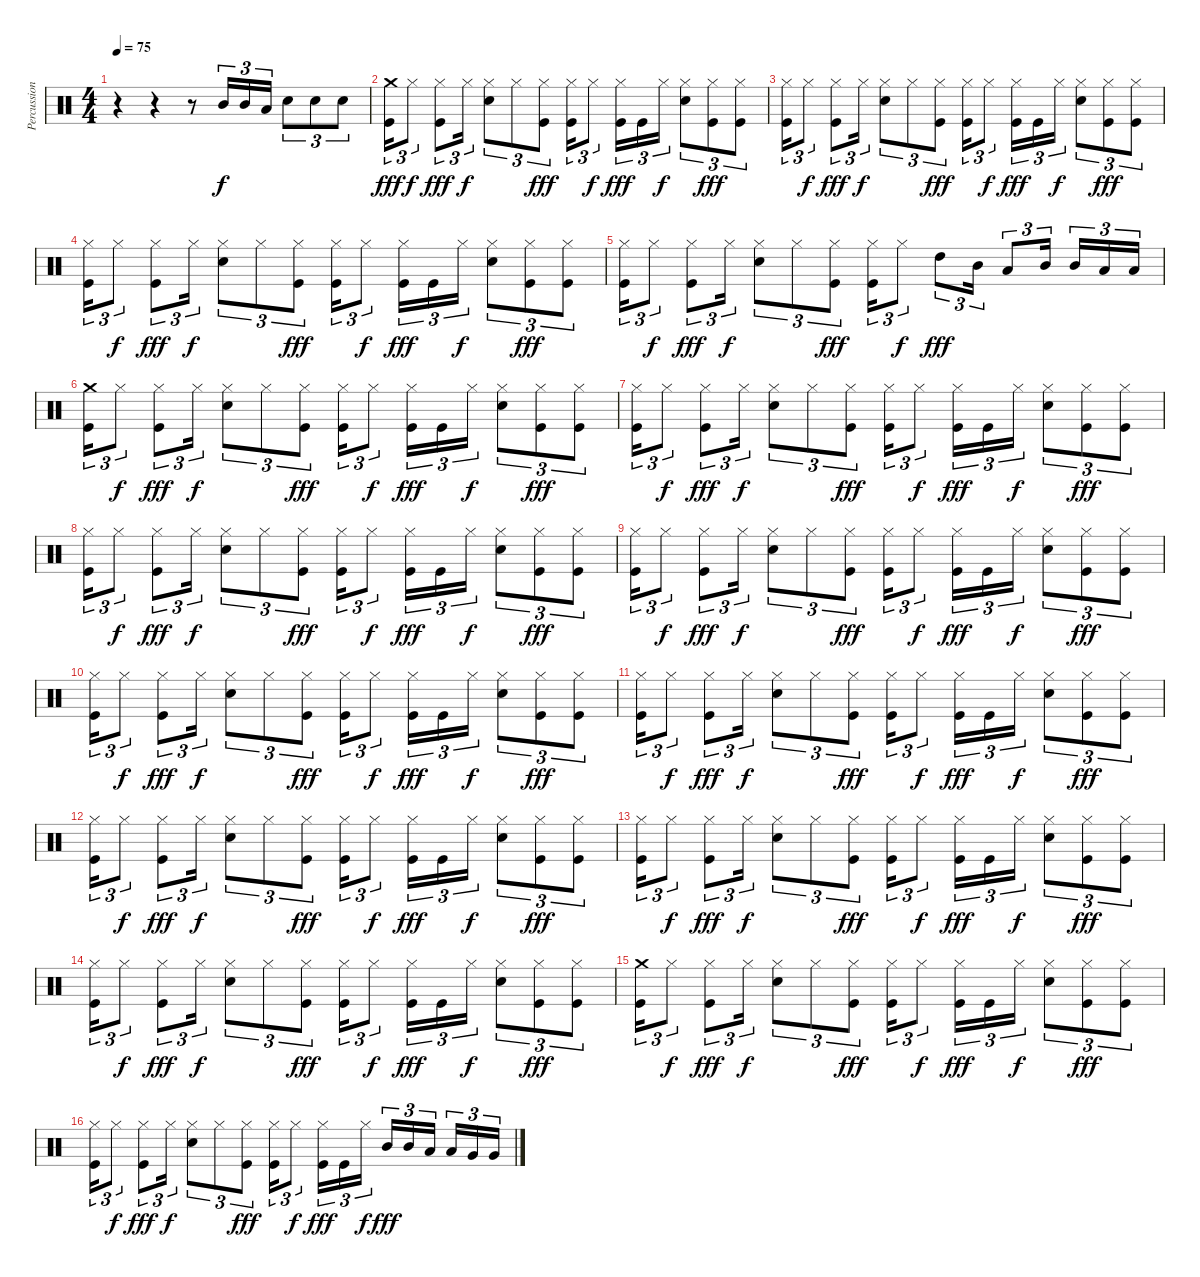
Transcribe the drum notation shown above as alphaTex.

\track ("Percussion" "Percussion") {instrument percussion}
\staff {score}
\articulation defaults
\ts (4 4)
\tempo 75
\clef neutral
\ks c
r.4{dy f} r.4 r.8 "Mid Tom (hit)".16{tu (3 2)} "Mid Tom (hit)".16{tu (3 2)} "Low Tom (hit)".16{tu (3 2)} "Snare (hit) 2".8{tu (3 2)} "Snare (hit) 2".8{tu (3 2)} "Snare (hit) 2".8{tu (3 2)} |
("Crash medium (hit)" "Kick (hit)").16{tu (3 2) dy fff} "Hi-Hat (closed)".8{tu (3 2) dy f} ("Hi-Hat (closed)" "Kick (hit)").8{tu (3 2) dy fff} "Hi-Hat (closed)".16{tu (3 2) dy f} ("Hi-Hat (closed)" "Snare (hit) 2").8{tu (3 2)} "Hi-Hat (closed)".8{tu (3 2)} ("Hi-Hat (closed)" "Kick (hit)").8{tu (3 2) dy fff} ("Hi-Hat (closed)" "Kick (hit)").16{tu (3 2)} "Hi-Hat (closed)".8{tu (3 2) dy f} ("Hi-Hat (closed)" "Kick (hit)").16{tu (3 2) dy fff} "Kick (hit)".16{tu (3 2)} "Hi-Hat (closed)".16{tu (3 2) dy f} ("Hi-Hat (closed)" "Snare (hit) 2").8{tu (3 2)} ("Hi-Hat (closed)" "Kick (hit)").8{tu (3 2) dy fff} ("Hi-Hat (closed)" "Kick (hit)").8{tu (3 2)} |
("Hi-Hat (closed)" "Kick (hit)").16{tu (3 2)} "Hi-Hat (closed)".8{tu (3 2) dy f} ("Hi-Hat (closed)" "Kick (hit)").8{tu (3 2) dy fff} "Hi-Hat (closed)".16{tu (3 2) dy f} ("Hi-Hat (closed)" "Snare (hit) 2").8{tu (3 2)} "Hi-Hat (closed)".8{tu (3 2)} ("Hi-Hat (closed)" "Kick (hit)").8{tu (3 2) dy fff} ("Hi-Hat (closed)" "Kick (hit)").16{tu (3 2)} "Hi-Hat (closed)".8{tu (3 2) dy f} ("Hi-Hat (closed)" "Kick (hit)").16{tu (3 2) dy fff} "Kick (hit)".16{tu (3 2)} "Hi-Hat (closed)".16{tu (3 2) dy f} ("Hi-Hat (closed)" "Snare (hit) 2").8{tu (3 2)} ("Hi-Hat (closed)" "Kick (hit)").8{tu (3 2) dy fff} ("Hi-Hat (closed)" "Kick (hit)").8{tu (3 2)} |
("Hi-Hat (closed)" "Kick (hit)").16{tu (3 2)} "Hi-Hat (closed)".8{tu (3 2) dy f} ("Hi-Hat (closed)" "Kick (hit)").8{tu (3 2) dy fff} "Hi-Hat (closed)".16{tu (3 2) dy f} ("Hi-Hat (closed)" "Snare (hit) 2").8{tu (3 2)} "Hi-Hat (closed)".8{tu (3 2)} ("Hi-Hat (closed)" "Kick (hit)").8{tu (3 2) dy fff} ("Hi-Hat (closed)" "Kick (hit)").16{tu (3 2)} "Hi-Hat (closed)".8{tu (3 2) dy f} ("Hi-Hat (closed)" "Kick (hit)").16{tu (3 2) dy fff} "Kick (hit)".16{tu (3 2)} "Hi-Hat (closed)".16{tu (3 2) dy f} ("Hi-Hat (closed)" "Snare (hit) 2").8{tu (3 2)} ("Hi-Hat (closed)" "Kick (hit)").8{tu (3 2) dy fff} ("Hi-Hat (closed)" "Kick (hit)").8{tu (3 2)} |
("Hi-Hat (closed)" "Kick (hit)").16{tu (3 2)} "Hi-Hat (closed)".8{tu (3 2) dy f} ("Hi-Hat (closed)" "Kick (hit)").8{tu (3 2) dy fff} "Hi-Hat (closed)".16{tu (3 2) dy f} ("Hi-Hat (closed)" "Snare (hit) 2").8{tu (3 2)} "Hi-Hat (closed)".8{tu (3 2)} ("Hi-Hat (closed)" "Kick (hit)").8{tu (3 2) dy fff} ("Hi-Hat (closed)" "Kick (hit)").16{tu (3 2)} "Hi-Hat (closed)".8{tu (3 2) dy f} "High Tom (hit)".8{tu (3 2) dy fff} "Mid Tom (hit)".16{tu (3 2)} "Low Tom (hit)".8{tu (3 2)} "Mid Tom (hit)".16{tu (3 2)} "Mid Tom (hit)".16{tu (3 2)} "Low Tom (hit)".16{tu (3 2)} "Low Tom (hit)".16{tu (3 2)} |
("Crash medium (hit)" "Kick (hit)").16{tu (3 2)} "Hi-Hat (closed)".8{tu (3 2) dy f} ("Hi-Hat (closed)" "Kick (hit)").8{tu (3 2) dy fff} "Hi-Hat (closed)".16{tu (3 2) dy f} ("Hi-Hat (closed)" "Snare (hit) 2").8{tu (3 2)} "Hi-Hat (closed)".8{tu (3 2)} ("Hi-Hat (closed)" "Kick (hit)").8{tu (3 2) dy fff} ("Hi-Hat (closed)" "Kick (hit)").16{tu (3 2)} "Hi-Hat (closed)".8{tu (3 2) dy f} ("Hi-Hat (closed)" "Kick (hit)").16{tu (3 2) dy fff} "Kick (hit)".16{tu (3 2)} "Hi-Hat (closed)".16{tu (3 2) dy f} ("Hi-Hat (closed)" "Snare (hit) 2").8{tu (3 2)} ("Hi-Hat (closed)" "Kick (hit)").8{tu (3 2) dy fff} ("Hi-Hat (closed)" "Kick (hit)").8{tu (3 2)} |
("Hi-Hat (closed)" "Kick (hit)").16{tu (3 2)} "Hi-Hat (closed)".8{tu (3 2) dy f} ("Hi-Hat (closed)" "Kick (hit)").8{tu (3 2) dy fff} "Hi-Hat (closed)".16{tu (3 2) dy f} ("Hi-Hat (closed)" "Snare (hit) 2").8{tu (3 2)} "Hi-Hat (closed)".8{tu (3 2)} ("Hi-Hat (closed)" "Kick (hit)").8{tu (3 2) dy fff} ("Hi-Hat (closed)" "Kick (hit)").16{tu (3 2)} "Hi-Hat (closed)".8{tu (3 2) dy f} ("Hi-Hat (closed)" "Kick (hit)").16{tu (3 2) dy fff} "Kick (hit)".16{tu (3 2)} "Hi-Hat (closed)".16{tu (3 2) dy f} ("Hi-Hat (closed)" "Snare (hit) 2").8{tu (3 2)} ("Hi-Hat (closed)" "Kick (hit)").8{tu (3 2) dy fff} ("Hi-Hat (closed)" "Kick (hit)").8{tu (3 2)} |
("Hi-Hat (closed)" "Kick (hit)").16{tu (3 2)} "Hi-Hat (closed)".8{tu (3 2) dy f} ("Hi-Hat (closed)" "Kick (hit)").8{tu (3 2) dy fff} "Hi-Hat (closed)".16{tu (3 2) dy f} ("Hi-Hat (closed)" "Snare (hit) 2").8{tu (3 2)} "Hi-Hat (closed)".8{tu (3 2)} ("Hi-Hat (closed)" "Kick (hit)").8{tu (3 2) dy fff} ("Hi-Hat (closed)" "Kick (hit)").16{tu (3 2)} "Hi-Hat (closed)".8{tu (3 2) dy f} ("Hi-Hat (closed)" "Kick (hit)").16{tu (3 2) dy fff} "Kick (hit)".16{tu (3 2)} "Hi-Hat (closed)".16{tu (3 2) dy f} ("Hi-Hat (closed)" "Snare (hit) 2").8{tu (3 2)} ("Hi-Hat (closed)" "Kick (hit)").8{tu (3 2) dy fff} ("Hi-Hat (closed)" "Kick (hit)").8{tu (3 2)} |
("Hi-Hat (closed)" "Kick (hit)").16{tu (3 2)} "Hi-Hat (closed)".8{tu (3 2) dy f} ("Hi-Hat (closed)" "Kick (hit)").8{tu (3 2) dy fff} "Hi-Hat (closed)".16{tu (3 2) dy f} ("Hi-Hat (closed)" "Snare (hit) 2").8{tu (3 2)} "Hi-Hat (closed)".8{tu (3 2)} ("Hi-Hat (closed)" "Kick (hit)").8{tu (3 2) dy fff} ("Hi-Hat (closed)" "Kick (hit)").16{tu (3 2)} "Hi-Hat (closed)".8{tu (3 2) dy f} ("Hi-Hat (closed)" "Kick (hit)").16{tu (3 2) dy fff} "Kick (hit)".16{tu (3 2)} "Hi-Hat (closed)".16{tu (3 2) dy f} ("Hi-Hat (closed)" "Snare (hit) 2").8{tu (3 2)} ("Hi-Hat (closed)" "Kick (hit)").8{tu (3 2) dy fff} ("Hi-Hat (closed)" "Kick (hit)").8{tu (3 2)} |
("Hi-Hat (closed)" "Kick (hit)").16{tu (3 2)} "Hi-Hat (closed)".8{tu (3 2) dy f} ("Hi-Hat (closed)" "Kick (hit)").8{tu (3 2) dy fff} "Hi-Hat (closed)".16{tu (3 2) dy f} ("Hi-Hat (closed)" "Snare (hit) 2").8{tu (3 2)} "Hi-Hat (closed)".8{tu (3 2)} ("Hi-Hat (closed)" "Kick (hit)").8{tu (3 2) dy fff} ("Hi-Hat (closed)" "Kick (hit)").16{tu (3 2)} "Hi-Hat (closed)".8{tu (3 2) dy f} ("Hi-Hat (closed)" "Kick (hit)").16{tu (3 2) dy fff} "Kick (hit)".16{tu (3 2)} "Hi-Hat (closed)".16{tu (3 2) dy f} ("Hi-Hat (closed)" "Snare (hit) 2").8{tu (3 2)} ("Hi-Hat (closed)" "Kick (hit)").8{tu (3 2) dy fff} ("Hi-Hat (closed)" "Kick (hit)").8{tu (3 2)} |
("Hi-Hat (closed)" "Kick (hit)").16{tu (3 2)} "Hi-Hat (closed)".8{tu (3 2) dy f} ("Hi-Hat (closed)" "Kick (hit)").8{tu (3 2) dy fff} "Hi-Hat (closed)".16{tu (3 2) dy f} ("Hi-Hat (closed)" "Snare (hit) 2").8{tu (3 2)} "Hi-Hat (closed)".8{tu (3 2)} ("Hi-Hat (closed)" "Kick (hit)").8{tu (3 2) dy fff} ("Hi-Hat (closed)" "Kick (hit)").16{tu (3 2)} "Hi-Hat (closed)".8{tu (3 2) dy f} ("Hi-Hat (closed)" "Kick (hit)").16{tu (3 2) dy fff} "Kick (hit)".16{tu (3 2)} "Hi-Hat (closed)".16{tu (3 2) dy f} ("Hi-Hat (closed)" "Snare (hit) 2").8{tu (3 2)} ("Hi-Hat (closed)" "Kick (hit)").8{tu (3 2) dy fff} ("Hi-Hat (closed)" "Kick (hit)").8{tu (3 2)} |
("Hi-Hat (closed)" "Kick (hit)").16{tu (3 2)} "Hi-Hat (closed)".8{tu (3 2) dy f} ("Hi-Hat (closed)" "Kick (hit)").8{tu (3 2) dy fff} "Hi-Hat (closed)".16{tu (3 2) dy f} ("Hi-Hat (closed)" "Snare (hit) 2").8{tu (3 2)} "Hi-Hat (closed)".8{tu (3 2)} ("Hi-Hat (closed)" "Kick (hit)").8{tu (3 2) dy fff} ("Hi-Hat (closed)" "Kick (hit)").16{tu (3 2)} "Hi-Hat (closed)".8{tu (3 2) dy f} ("Hi-Hat (closed)" "Kick (hit)").16{tu (3 2) dy fff} "Kick (hit)".16{tu (3 2)} "Hi-Hat (closed)".16{tu (3 2) dy f} ("Hi-Hat (closed)" "Snare (hit) 2").8{tu (3 2)} ("Hi-Hat (closed)" "Kick (hit)").8{tu (3 2) dy fff} ("Hi-Hat (closed)" "Kick (hit)").8{tu (3 2)} |
("Hi-Hat (closed)" "Kick (hit)").16{tu (3 2)} "Hi-Hat (closed)".8{tu (3 2) dy f} ("Hi-Hat (closed)" "Kick (hit)").8{tu (3 2) dy fff} "Hi-Hat (closed)".16{tu (3 2) dy f} ("Hi-Hat (closed)" "Snare (hit) 2").8{tu (3 2)} "Hi-Hat (closed)".8{tu (3 2)} ("Hi-Hat (closed)" "Kick (hit)").8{tu (3 2) dy fff} ("Hi-Hat (closed)" "Kick (hit)").16{tu (3 2)} "Hi-Hat (closed)".8{tu (3 2) dy f} ("Hi-Hat (closed)" "Kick (hit)").16{tu (3 2) dy fff} "Kick (hit)".16{tu (3 2)} "Hi-Hat (closed)".16{tu (3 2) dy f} ("Hi-Hat (closed)" "Snare (hit) 2").8{tu (3 2)} ("Hi-Hat (closed)" "Kick (hit)").8{tu (3 2) dy fff} ("Hi-Hat (closed)" "Kick (hit)").8{tu (3 2)} |
("Hi-Hat (closed)" "Kick (hit)").16{tu (3 2)} "Hi-Hat (closed)".8{tu (3 2) dy f} ("Hi-Hat (closed)" "Kick (hit)").8{tu (3 2) dy fff} "Hi-Hat (closed)".16{tu (3 2) dy f} ("Hi-Hat (closed)" "Snare (hit) 2").8{tu (3 2)} "Hi-Hat (closed)".8{tu (3 2)} ("Hi-Hat (closed)" "Kick (hit)").8{tu (3 2) dy fff} ("Hi-Hat (closed)" "Kick (hit)").16{tu (3 2)} "Hi-Hat (closed)".8{tu (3 2) dy f} ("Hi-Hat (closed)" "Kick (hit)").16{tu (3 2) dy fff} "Kick (hit)".16{tu (3 2)} "Hi-Hat (closed)".16{tu (3 2) dy f} ("Hi-Hat (closed)" "Snare (hit) 2").8{tu (3 2)} ("Hi-Hat (closed)" "Kick (hit)").8{tu (3 2) dy fff} ("Hi-Hat (closed)" "Kick (hit)").8{tu (3 2)} |
("Crash medium (hit)" "Kick (hit)").16{tu (3 2)} "Hi-Hat (closed)".8{tu (3 2) dy f} ("Hi-Hat (closed)" "Kick (hit)").8{tu (3 2) dy fff} "Hi-Hat (closed)".16{tu (3 2) dy f} ("Hi-Hat (closed)" "Snare (hit) 2").8{tu (3 2)} "Hi-Hat (closed)".8{tu (3 2)} ("Hi-Hat (closed)" "Kick (hit)").8{tu (3 2) dy fff} ("Hi-Hat (closed)" "Kick (hit)").16{tu (3 2)} "Hi-Hat (closed)".8{tu (3 2) dy f} ("Hi-Hat (closed)" "Kick (hit)").16{tu (3 2) dy fff} "Kick (hit)".16{tu (3 2)} "Hi-Hat (closed)".16{tu (3 2) dy f} ("Hi-Hat (closed)" "Snare (hit) 2").8{tu (3 2)} ("Hi-Hat (closed)" "Kick (hit)").8{tu (3 2) dy fff} ("Hi-Hat (closed)" "Kick (hit)").8{tu (3 2)} |
("Hi-Hat (closed)" "Kick (hit)").16{tu (3 2)} "Hi-Hat (closed)".8{tu (3 2) dy f} ("Hi-Hat (closed)" "Kick (hit)").8{tu (3 2) dy fff} "Hi-Hat (closed)".16{tu (3 2) dy f} ("Hi-Hat (closed)" "Snare (hit) 2").8{tu (3 2)} "Hi-Hat (closed)".8{tu (3 2)} ("Hi-Hat (closed)" "Kick (hit)").8{tu (3 2) dy fff} ("Hi-Hat (closed)" "Kick (hit)").16{tu (3 2)} "Hi-Hat (closed)".8{tu (3 2) dy f} ("Hi-Hat (closed)" "Kick (hit)").16{tu (3 2) dy fff} "Kick (hit)".16{tu (3 2)} "Hi-Hat (closed)".16{tu (3 2) dy f} "Mid Tom (hit)".16{tu (3 2) dy fff} "Mid Tom (hit)".16{tu (3 2)} "Low Tom (hit)".16{tu (3 2)} "Low Tom (hit)".16{tu (3 2)} "Very Low Tom (hit)".16{tu (3 2)} "Very Low Tom (hit)".16{tu (3 2)}
